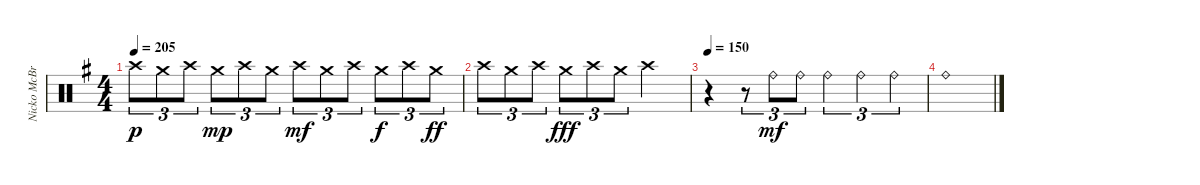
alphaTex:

\track ("Nicko McBrain (Drums)" "Nicko McBr") {instrument percussion}
\staff {score}
\articulation defaults
\ts (4 4)
\tempo 205
\clef neutral
\ks eminor "Crash high (hit)".8{tu (3 2) dy p} "Crash medium (hit)".8{tu (3 2)} "Crash high (hit)".8{tu (3 2)} "Crash medium (hit)".8{tu (3 2) dy mp} "Crash high (hit)".8{tu (3 2)} "Crash medium (hit)".8{tu (3 2)} "Crash high (hit)".8{tu (3 2) dy mf} "Crash medium (hit)".8{tu (3 2)} "Crash high (hit)".8{tu (3 2)} "Crash medium (hit)".8{tu (3 2) dy f} "Crash high (hit)".8{tu (3 2)} "Crash medium (hit)".8{tu (3 2) dy ff}
|
"Crash high (hit)".8{tu (3 2)} "Crash medium (hit)".8{tu (3 2)} "Crash high (hit)".8{tu (3 2)} "Crash medium (hit)".8{tu (3 2) dy fff} "Crash high (hit)".8{tu (3 2)} "Crash medium (hit)".8{tu (3 2)} "Crash high (hit)".2 |
\tempo 150
r.4 r.8{tu (3 2)} "Ride (bell)".8{tu (3 2) dy mf} "Ride (bell)".8{tu (3 2)} "Ride (bell)".4{tu (3 2)} "Ride (bell)".4{tu (3 2)} "Ride (bell)".4{tu (3 2)} |
"Ride (bell)".1
